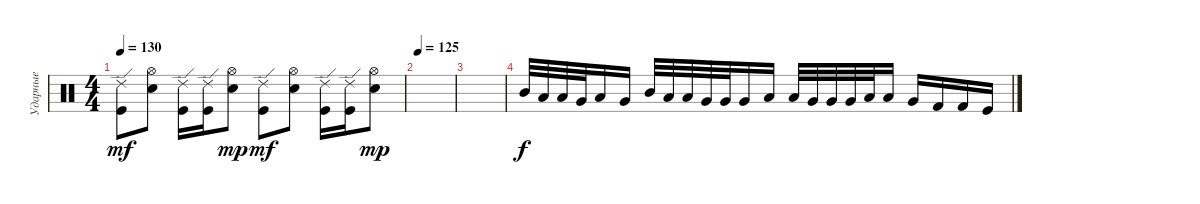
\track ("Ударные" "Ударные") {instrument percussion}
\staff {score}
\articulation defaults
\ts (4 4)
\tempo 130
\clef neutral
\ks c
("Kick (hit)" "Ride (edge) 2").8{dy mf} ("Electric Snare (hit)" "Hi-Hat (open)").8 ("Kick (hit)" "Ride (edge) 2").16 ("Kick (hit)" "Ride (edge) 2").16 ("Electric Snare (hit)" "Hi-Hat (open)").8{dy mp} ("Kick (hit)" "Ride (edge) 2").8{dy mf} ("Electric Snare (hit)" "Hi-Hat (open)").8 ("Kick (hit)" "Ride (edge) 2").16 ("Kick (hit)" "Ride (edge) 2").16 ("Electric Snare (hit)" "Hi-Hat (open)").8{dy mp} |
\tempo 125
|
|
"Mid Tom (hit)".32{dy f} "Low Tom (hit)".32 "Low Tom (hit)".32 "Very Low Tom (hit)".32 "Low Tom (hit)".16 "Very Low Tom (hit)".16 "Mid Tom (hit)".32 "Low Tom (hit)".32 "Low Tom (hit)".32 "Very Low Tom (hit)".32 "Very Low Tom (hit)".32 "Very Low Tom (hit)".16 "Low Floor Tom (hit)".16 "Low Tom (hit)".32 "Very Low Tom (hit)".32 "Very Low Tom (hit)".32 "Very Low Tom (hit)".32 "Low Floor Tom (hit)".32 "Low Tom (hit)".16 "Very Low Tom (hit)".16 "Kick (hit) 2".16 "Kick (hit) 2".16 "Kick (hit)".16
